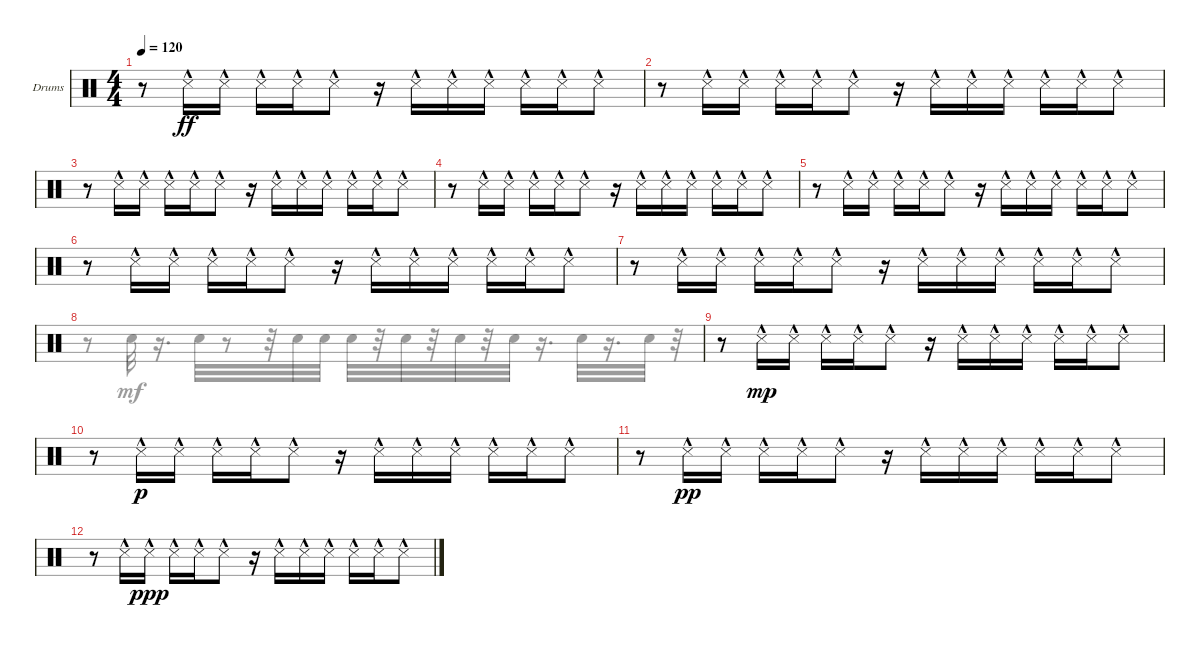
\defaultSystemsLayout 4
\bracketExtendMode groupsimilarinstruments
\firstSystemTrackNameOrientation horizontal
\otherSystemsTrackNameOrientation horizontal
\track ("Drumkit" "Drums") {instrument percussion}
\staff {score}
\articulation defaults
\voice
\ts (4 4)
\tempo 120
\clef neutral
\scale
0.333333
\ks c
r.8{dy ff} "Snare (side stick) 3"{hac}.16 "Snare (side stick) 3"{hac}.16 "Snare (side stick) 3"{hac}.16 "Snare (side stick) 3"{hac}.16 "Snare (side stick) 3"{hac}.8 r.16 "Snare (side stick) 3"{hac}.16 "Snare (side stick) 3"{hac}.16 "Snare (side stick) 3"{hac}.16 "Snare (side stick) 3"{hac}.16 "Snare (side stick) 3"{hac}.16 "Snare (side stick) 3"{hac}.8 |
\scale
0.333333 r.8 "Snare (side stick) 3"{hac}.16 "Snare (side stick) 3"{hac}.16 "Snare (side stick) 3"{hac}.16 "Snare (side stick) 3"{hac}.16 "Snare (side stick) 3"{hac}.8 r.16 "Snare (side stick) 3"{hac}.16 "Snare (side stick) 3"{hac}.16 "Snare (side stick) 3"{hac}.16 "Snare (side stick) 3"{hac}.16 "Snare (side stick) 3"{hac}.16 "Snare (side stick) 3"{hac}.8 |
\scale
0.333333 r.8 "Snare (side stick) 3"{hac}.16 "Snare (side stick) 3"{hac}.16 "Snare (side stick) 3"{hac}.16 "Snare (side stick) 3"{hac}.16 "Snare (side stick) 3"{hac}.8 r.16 "Snare (side stick) 3"{hac}.16 "Snare (side stick) 3"{hac}.16 "Snare (side stick) 3"{hac}.16 "Snare (side stick) 3"{hac}.16 "Snare (side stick) 3"{hac}.16 "Snare (side stick) 3"{hac}.8 |
\scale
0.333333 r.8 "Snare (side stick) 3"{hac}.16 "Snare (side stick) 3"{hac}.16 "Snare (side stick) 3"{hac}.16 "Snare (side stick) 3"{hac}.16 "Snare (side stick) 3"{hac}.8 r.16 "Snare (side stick) 3"{hac}.16 "Snare (side stick) 3"{hac}.16 "Snare (side stick) 3"{hac}.16 "Snare (side stick) 3"{hac}.16 "Snare (side stick) 3"{hac}.16 "Snare (side stick) 3"{hac}.8 |
\scale
0.333333 r.8 "Snare (side stick) 3"{hac}.16 "Snare (side stick) 3"{hac}.16 "Snare (side stick) 3"{hac}.16 "Snare (side stick) 3"{hac}.16 "Snare (side stick) 3"{hac}.8 r.16 "Snare (side stick) 3"{hac}.16 "Snare (side stick) 3"{hac}.16 "Snare (side stick) 3"{hac}.16 "Snare (side stick) 3"{hac}.16 "Snare (side stick) 3"{hac}.16 "Snare (side stick) 3"{hac}.8 |
\scale
0.333333 r.8 "Snare (side stick) 3"{hac}.16 "Snare (side stick) 3"{hac}.16 "Snare (side stick) 3"{hac}.16 "Snare (side stick) 3"{hac}.16 "Snare (side stick) 3"{hac}.8 r.16 "Snare (side stick) 3"{hac}.16 "Snare (side stick) 3"{hac}.16 "Snare (side stick) 3"{hac}.16 "Snare (side stick) 3"{hac}.16 "Snare (side stick) 3"{hac}.16 "Snare (side stick) 3"{hac}.8 |
\scale
0.333333 r.8 "Snare (side stick) 3"{hac}.16 "Snare (side stick) 3"{hac}.16 "Snare (side stick) 3"{hac}.16 "Snare (side stick) 3"{hac}.16 "Snare (side stick) 3"{hac}.8 r.16 "Snare (side stick) 3"{hac}.16 "Snare (side stick) 3"{hac}.16 "Snare (side stick) 3"{hac}.16 "Snare (side stick) 3"{hac}.16 "Snare (side stick) 3"{hac}.16 "Snare (side stick) 3"{hac}.8 |
\scale
0.333333 |
\scale
0.333333 r.8 "Snare (side stick) 3"{hac}.16{dy mp} "Snare (side stick) 3"{hac}.16 "Snare (side stick) 3"{hac}.16 "Snare (side stick) 3"{hac}.16 "Snare (side stick) 3"{hac}.8 r.16 "Snare (side stick) 3"{hac}.16 "Snare (side stick) 3"{hac}.16 "Snare (side stick) 3"{hac}.16 "Snare (side stick) 3"{hac}.16 "Snare (side stick) 3"{hac}.16 "Snare (side stick) 3"{hac}.8 |
\scale
0.333333 r.8 "Snare (side stick) 3"{hac}.16{dy p} "Snare (side stick) 3"{hac}.16 "Snare (side stick) 3"{hac}.16 "Snare (side stick) 3"{hac}.16 "Snare (side stick) 3"{hac}.8 r.16 "Snare (side stick) 3"{hac}.16 "Snare (side stick) 3"{hac}.16 "Snare (side stick) 3"{hac}.16 "Snare (side stick) 3"{hac}.16 "Snare (side stick) 3"{hac}.16 "Snare (side stick) 3"{hac}.8 |
\scale
0.333333 r.8 "Snare (side stick) 3"{hac}.16{dy pp} "Snare (side stick) 3"{hac}.16 "Snare (side stick) 3"{hac}.16 "Snare (side stick) 3"{hac}.16 "Snare (side stick) 3"{hac}.8 r.16 "Snare (side stick) 3"{hac}.16 "Snare (side stick) 3"{hac}.16 "Snare (side stick) 3"{hac}.16 "Snare (side stick) 3"{hac}.16 "Snare (side stick) 3"{hac}.16 "Snare (side stick) 3"{hac}.8 |
r.8 "Snare (side stick) 3"{hac}.16 "Snare (side stick) 3"{hac}.16{dy ppp} "Snare (side stick) 3"{hac}.16 "Snare (side stick) 3"{hac}.16 "Snare (side stick) 3"{hac}.8 r.16 "Snare (side stick) 3"{hac}.16 "Snare (side stick) 3"{hac}.16 "Snare (side stick) 3"{hac}.16 "Snare (side stick) 3"{hac}.16 "Snare (side stick) 3"{hac}.16 "Snare (side stick) 3"{hac}.8
\voice
\clef neutral
\ottava regular
\simile none
\scale
0.333333
\ks c
|
\scale
0.333333 |
\scale
0.333333 |
\scale
0.333333 |
\scale
0.333333 |
\scale
0.333333 |
\scale
0.333333 |
\scale
0.333333 r.8 "Snare (hit) 2".32{dy mf} r.16{d} "Snare (hit) 2".32 r.8 r.32 "Snare (hit) 2".32 "Snare (hit) 2".32 "Snare (hit) 2".32 r.32 "Snare (hit) 2".32 r.32 "Snare (hit) 2".32 r.32 "Snare (hit) 2".32 r.16{d} "Snare (hit) 2".32 r.16{d} "Snare (hit) 2".32 r.32 |
\scale
0.333333 |
\scale
0.333333 |
\scale
0.333333 |
